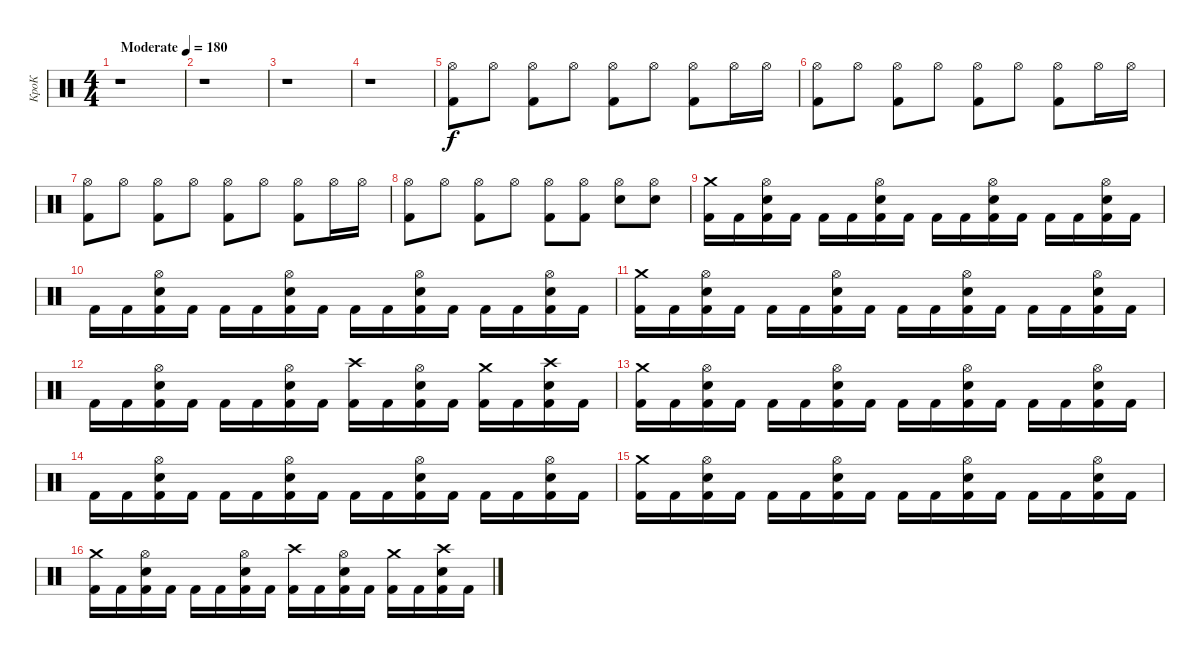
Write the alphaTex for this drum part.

\track ("КроК" "КроК") {instrument percussion}
\staff {score}
\articulation defaults
\ts (4 4)
\tempo (180 "Moderate")
\clef neutral
\ks c
r.1{dy f} |
r.1 |
r.1 |
r.1 |
("Hi-Hat (open)" "Kick (hit) 2").8 "Hi-Hat (open)".8 ("Hi-Hat (open)" "Kick (hit) 2").8 "Hi-Hat (open)".8 ("Hi-Hat (open)" "Kick (hit) 2").8 "Hi-Hat (open)".8 ("Hi-Hat (open)" "Kick (hit) 2").8 "Hi-Hat (open)".16 "Hi-Hat (open)".16 |
("Hi-Hat (open)" "Kick (hit) 2").8 "Hi-Hat (open)".8 ("Hi-Hat (open)" "Kick (hit) 2").8 "Hi-Hat (open)".8 ("Hi-Hat (open)" "Kick (hit) 2").8 "Hi-Hat (open)".8 ("Hi-Hat (open)" "Kick (hit) 2").8 "Hi-Hat (open)".16 "Hi-Hat (open)".16 |
("Hi-Hat (open)" "Kick (hit) 2").8 "Hi-Hat (open)".8 ("Hi-Hat (open)" "Kick (hit) 2").8 "Hi-Hat (open)".8 ("Hi-Hat (open)" "Kick (hit) 2").8 "Hi-Hat (open)".8 ("Hi-Hat (open)" "Kick (hit) 2").8 "Hi-Hat (open)".16 "Hi-Hat (open)".16 |
("Hi-Hat (open)" "Kick (hit) 2").8 "Hi-Hat (open)".8 ("Hi-Hat (open)" "Kick (hit) 2").8 "Hi-Hat (open)".8 ("Hi-Hat (open)" "Kick (hit) 2").8 ("Hi-Hat (open)" "Kick (hit) 2").8 ("Hi-Hat (open)" "Electric Snare (hit)").8 ("Hi-Hat (open)" "Electric Snare (hit)").8 |
("Kick (hit) 2" "Crash medium (hit)").16 "Kick (hit) 2".16 ("Kick (hit) 2" "Electric Snare (hit)" "Hi-Hat (open)").16 "Kick (hit) 2".16 "Kick (hit) 2".16 "Kick (hit) 2".16 ("Kick (hit) 2" "Electric Snare (hit)" "Hi-Hat (open)").16 "Kick (hit) 2".16 "Kick (hit) 2".16 "Kick (hit) 2".16 ("Kick (hit) 2" "Electric Snare (hit)" "Hi-Hat (open)").16 "Kick (hit) 2".16 "Kick (hit) 2".16 "Kick (hit) 2".16 ("Kick (hit) 2" "Electric Snare (hit)" "Hi-Hat (open)").16 "Kick (hit) 2".16 |
"Kick (hit) 2".16 "Kick (hit) 2".16 ("Kick (hit) 2" "Electric Snare (hit)" "Hi-Hat (open)").16 "Kick (hit) 2".16 "Kick (hit) 2".16 "Kick (hit) 2".16 ("Kick (hit) 2" "Electric Snare (hit)" "Hi-Hat (open)").16 "Kick (hit) 2".16 "Kick (hit) 2".16 "Kick (hit) 2".16 ("Kick (hit) 2" "Electric Snare (hit)" "Hi-Hat (open)").16 "Kick (hit) 2".16 "Kick (hit) 2".16 "Kick (hit) 2".16 ("Kick (hit) 2" "Electric Snare (hit)" "Hi-Hat (open)").16 "Kick (hit) 2".16 |
("Kick (hit) 2" "Crash medium (hit)").16 "Kick (hit) 2".16 ("Kick (hit) 2" "Electric Snare (hit)" "Hi-Hat (open)").16 "Kick (hit) 2".16 "Kick (hit) 2".16 "Kick (hit) 2".16 ("Kick (hit) 2" "Electric Snare (hit)" "Hi-Hat (open)").16 "Kick (hit) 2".16 "Kick (hit) 2".16 "Kick (hit) 2".16 ("Kick (hit) 2" "Electric Snare (hit)" "Hi-Hat (open)").16 "Kick (hit) 2".16 "Kick (hit) 2".16 "Kick (hit) 2".16 ("Kick (hit) 2" "Electric Snare (hit)" "Hi-Hat (open)").16 "Kick (hit) 2".16 |
"Kick (hit) 2".16 "Kick (hit) 2".16 ("Kick (hit) 2" "Electric Snare (hit)" "Hi-Hat (open)").16 "Kick (hit) 2".16 "Kick (hit) 2".16 "Kick (hit) 2".16 ("Kick (hit) 2" "Electric Snare (hit)" "Hi-Hat (open)").16 "Kick (hit) 2".16 ("Kick (hit) 2" "Crash high (hit)").16 "Kick (hit) 2".16 ("Kick (hit) 2" "Electric Snare (hit)" "Hi-Hat (open)").16 "Kick (hit) 2".16 ("Kick (hit) 2" "Crash medium (hit)").16 "Kick (hit) 2".16 ("Kick (hit) 2" "Electric Snare (hit)" "Crash high (hit)").16 "Kick (hit) 2".16 |
("Kick (hit) 2" "Crash medium (hit)").16 "Kick (hit) 2".16 ("Kick (hit) 2" "Electric Snare (hit)" "Hi-Hat (open)").16 "Kick (hit) 2".16 "Kick (hit) 2".16 "Kick (hit) 2".16 ("Kick (hit) 2" "Electric Snare (hit)" "Hi-Hat (open)").16 "Kick (hit) 2".16 "Kick (hit) 2".16 "Kick (hit) 2".16 ("Kick (hit) 2" "Electric Snare (hit)" "Hi-Hat (open)").16 "Kick (hit) 2".16 "Kick (hit) 2".16 "Kick (hit) 2".16 ("Kick (hit) 2" "Electric Snare (hit)" "Hi-Hat (open)").16 "Kick (hit) 2".16 |
"Kick (hit) 2".16 "Kick (hit) 2".16 ("Kick (hit) 2" "Electric Snare (hit)" "Hi-Hat (open)").16 "Kick (hit) 2".16 "Kick (hit) 2".16 "Kick (hit) 2".16 ("Kick (hit) 2" "Electric Snare (hit)" "Hi-Hat (open)").16 "Kick (hit) 2".16 "Kick (hit) 2".16 "Kick (hit) 2".16 ("Kick (hit) 2" "Electric Snare (hit)" "Hi-Hat (open)").16 "Kick (hit) 2".16 "Kick (hit) 2".16 "Kick (hit) 2".16 ("Kick (hit) 2" "Electric Snare (hit)" "Hi-Hat (open)").16 "Kick (hit) 2".16 |
("Kick (hit) 2" "Crash medium (hit)").16 "Kick (hit) 2".16 ("Kick (hit) 2" "Electric Snare (hit)" "Hi-Hat (open)").16 "Kick (hit) 2".16 "Kick (hit) 2".16 "Kick (hit) 2".16 ("Kick (hit) 2" "Electric Snare (hit)" "Hi-Hat (open)").16 "Kick (hit) 2".16 "Kick (hit) 2".16 "Kick (hit) 2".16 ("Kick (hit) 2" "Electric Snare (hit)" "Hi-Hat (open)").16 "Kick (hit) 2".16 "Kick (hit) 2".16 "Kick (hit) 2".16 ("Kick (hit) 2" "Electric Snare (hit)" "Hi-Hat (open)").16 "Kick (hit) 2".16 |
("Kick (hit) 2" "Crash medium (hit)").16 "Kick (hit) 2".16 ("Kick (hit) 2" "Electric Snare (hit)" "Hi-Hat (open)").16 "Kick (hit) 2".16 "Kick (hit) 2".16 "Kick (hit) 2".16 ("Kick (hit) 2" "Electric Snare (hit)" "Hi-Hat (open)").16 "Kick (hit) 2".16 ("Kick (hit) 2" "Crash high (hit)").16 "Kick (hit) 2".16 ("Kick (hit) 2" "Electric Snare (hit)" "Hi-Hat (open)").16 "Kick (hit) 2".16 ("Kick (hit) 2" "Crash medium (hit)").16 "Kick (hit) 2".16 ("Kick (hit) 2" "Electric Snare (hit)" "Crash high (hit)").16 "Kick (hit) 2".16
